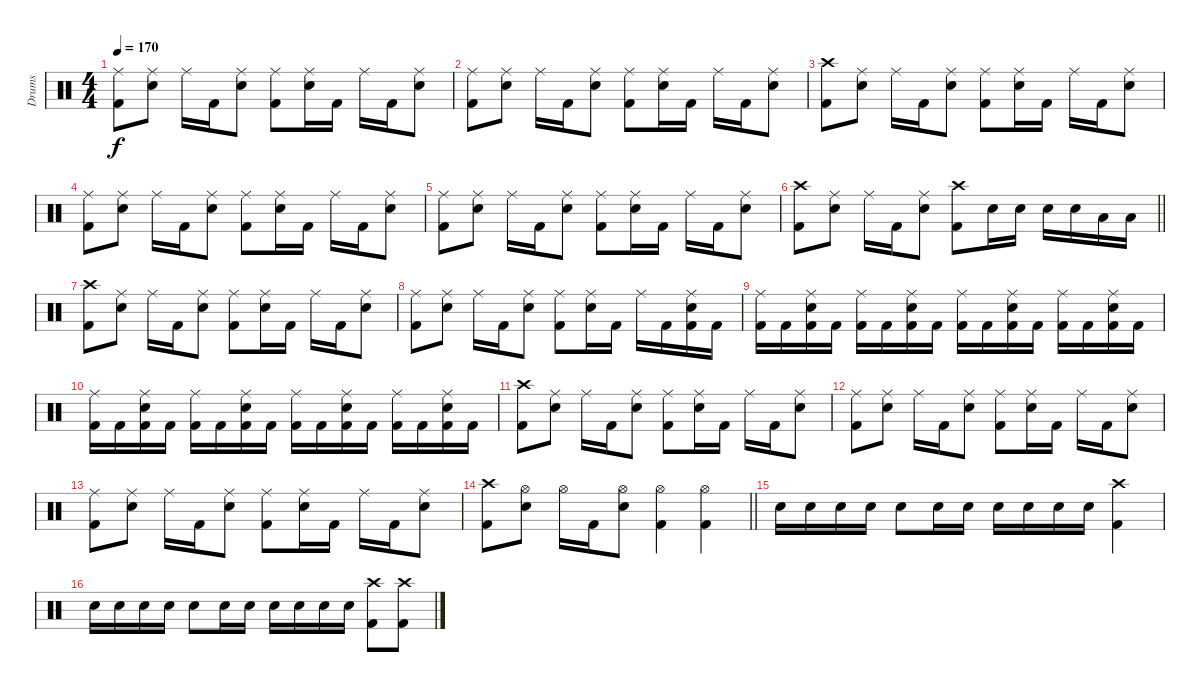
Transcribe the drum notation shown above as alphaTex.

\track ("Drums" "Drums") {instrument percussion}
\staff {score}
\articulation defaults
\ts (4 4)
\tempo 170
\clef neutral
\ks c
("Ride (middle)" "Kick (hit) 2").8{dy f} ("Ride (middle)" "Snare (hit) 2").8 "Ride (middle)".16 "Kick (hit) 2".16 ("Ride (middle)" "Snare (hit) 2").8 ("Ride (middle)" "Kick (hit) 2").8 ("Ride (middle)" "Snare (hit) 2").16 "Kick (hit) 2".16 "Ride (middle)".16 "Kick (hit) 2".16 ("Ride (middle)" "Snare (hit) 2").8 |
("Ride (middle)" "Kick (hit) 2").8 ("Ride (middle)" "Snare (hit) 2").8 "Ride (middle)".16 "Kick (hit) 2".16 ("Ride (middle)" "Snare (hit) 2").8 ("Ride (middle)" "Kick (hit) 2").8 ("Ride (middle)" "Snare (hit) 2").16 "Kick (hit) 2".16 "Ride (middle)".16 "Kick (hit) 2".16 ("Ride (middle)" "Snare (hit) 2").8 |
("Crash high (hit)" "Kick (hit) 2").8 ("Ride (middle)" "Snare (hit) 2").8 "Ride (middle)".16 "Kick (hit) 2".16 ("Ride (middle)" "Snare (hit) 2").8 ("Ride (middle)" "Kick (hit) 2").8 ("Ride (middle)" "Snare (hit) 2").16 "Kick (hit) 2".16 "Ride (middle)".16 "Kick (hit) 2".16 ("Ride (middle)" "Snare (hit) 2").8 |
("Ride (middle)" "Kick (hit) 2").8 ("Ride (middle)" "Snare (hit) 2").8 "Ride (middle)".16 "Kick (hit) 2".16 ("Ride (middle)" "Snare (hit) 2").8 ("Ride (middle)" "Kick (hit) 2").8 ("Ride (middle)" "Snare (hit) 2").16 "Kick (hit) 2".16 "Ride (middle)".16 "Kick (hit) 2".16 ("Ride (middle)" "Snare (hit) 2").8 |
("Ride (middle)" "Kick (hit) 2").8 ("Ride (middle)" "Snare (hit) 2").8 "Ride (middle)".16 "Kick (hit) 2".16 ("Ride (middle)" "Snare (hit) 2").8 ("Ride (middle)" "Kick (hit) 2").8 ("Ride (middle)" "Snare (hit) 2").16 "Kick (hit) 2".16 "Ride (middle)".16 "Kick (hit) 2".16 ("Ride (middle)" "Snare (hit) 2").8 |
\barLineRight lightlight
("Crash high (hit)" "Kick (hit) 2").8 ("Ride (middle)" "Snare (hit) 2").8 "Ride (middle)".16 "Kick (hit) 2".16 ("Ride (middle)" "Snare (hit) 2").8 ("Crash high (hit)" "Kick (hit) 2").8 "Snare (hit) 2".16 "Snare (hit) 2".16 "Snare (hit) 2".16 "Snare (hit) 2".16 "Low Tom (hit)".16 "Low Floor Tom (hit)".16 |
("Crash high (hit)" "Kick (hit) 2").8 ("Ride (middle)" "Snare (hit) 2").8 "Ride (middle)".16 "Kick (hit) 2".16 ("Ride (middle)" "Snare (hit) 2").8 ("Ride (middle)" "Kick (hit) 2").8 ("Ride (middle)" "Snare (hit) 2").16 "Kick (hit) 2".16 "Ride (middle)".16 "Kick (hit) 2".16 ("Ride (middle)" "Snare (hit) 2").8 |
("Ride (middle)" "Kick (hit) 2").8 ("Ride (middle)" "Snare (hit) 2").8 "Ride (middle)".16 "Kick (hit) 2".16 ("Ride (middle)" "Snare (hit) 2").8 ("Ride (middle)" "Kick (hit) 2").8 ("Ride (middle)" "Snare (hit) 2").16 "Kick (hit) 2".16 "Ride (middle)".16 "Kick (hit) 2".16 ("Ride (middle)" "Snare (hit) 2" "Kick (hit) 2").16 "Kick (hit) 2".16 |
("Ride (middle)" "Kick (hit) 2").16 "Kick (hit) 2".16 ("Ride (middle)" "Snare (hit) 2" "Kick (hit) 2").16 "Kick (hit) 2".16 ("Ride (middle)" "Kick (hit) 2").16 "Kick (hit) 2".16 ("Ride (middle)" "Snare (hit) 2" "Kick (hit) 2").16 "Kick (hit) 2".16 ("Ride (middle)" "Kick (hit) 2").16 "Kick (hit) 2".16 ("Ride (middle)" "Snare (hit) 2" "Kick (hit) 2").16 "Kick (hit) 2".16 ("Ride (middle)" "Kick (hit) 2").16 "Kick (hit) 2".16 ("Ride (middle)" "Snare (hit) 2" "Kick (hit) 2").16 "Kick (hit) 2".16 |
("Ride (middle)" "Kick (hit) 2").16 "Kick (hit) 2".16 ("Ride (middle)" "Snare (hit) 2" "Kick (hit) 2").16 "Kick (hit) 2".16 ("Ride (middle)" "Kick (hit) 2").16 "Kick (hit) 2".16 ("Ride (middle)" "Snare (hit) 2" "Kick (hit) 2").16 "Kick (hit) 2".16 ("Ride (middle)" "Kick (hit) 2").16 "Kick (hit) 2".16 ("Ride (middle)" "Snare (hit) 2" "Kick (hit) 2").16 "Kick (hit) 2".16 ("Ride (middle)" "Kick (hit) 2").16 "Kick (hit) 2".16 ("Ride (middle)" "Snare (hit) 2" "Kick (hit) 2").16 "Kick (hit) 2".16 |
("Crash high (hit)" "Kick (hit) 2").8 ("Ride (middle)" "Snare (hit) 2").8 "Ride (middle)".16 "Kick (hit) 2".16 ("Ride (middle)" "Snare (hit) 2").8 ("Ride (middle)" "Kick (hit) 2").8 ("Ride (middle)" "Snare (hit) 2").16 "Kick (hit) 2".16 "Ride (middle)".16 "Kick (hit) 2".16 ("Ride (middle)" "Snare (hit) 2").8 |
("Ride (middle)" "Kick (hit) 2").8 ("Ride (middle)" "Snare (hit) 2").8 "Ride (middle)".16 "Kick (hit) 2".16 ("Ride (middle)" "Snare (hit) 2").8 ("Ride (middle)" "Kick (hit) 2").8 ("Ride (middle)" "Snare (hit) 2").16 "Kick (hit) 2".16 "Ride (middle)".16 "Kick (hit) 2".16 ("Ride (middle)" "Snare (hit) 2").8 |
("Ride (middle)" "Kick (hit) 2").8 ("Ride (middle)" "Snare (hit) 2").8 "Ride (middle)".16 "Kick (hit) 2".16 ("Ride (middle)" "Snare (hit) 2").8 ("Ride (middle)" "Kick (hit) 2").8 ("Ride (middle)" "Snare (hit) 2").16 "Kick (hit) 2".16 "Ride (middle)".16 "Kick (hit) 2".16 ("Ride (middle)" "Snare (hit) 2").8 |
\barLineRight lightlight
("Crash high (hit)" "Kick (hit) 2").8 ("Hi-Hat (open)" "Snare (hit) 2").8 "Hi-Hat (open)".16 "Kick (hit) 2".16 ("Hi-Hat (open)" "Snare (hit) 2").8 ("Hi-Hat (open)" "Kick (hit) 2").4 ("Hi-Hat (open)" "Kick (hit) 2").4 |
"Snare (hit) 2".16 "Snare (hit) 2".16 "Snare (hit) 2".16 "Snare (hit) 2".16 "Snare (hit) 2".8 "Snare (hit) 2".16 "Snare (hit) 2".16 "Snare (hit) 2".16 "Snare (hit) 2".16 "Snare (hit) 2".16 "Snare (hit) 2".16 ("Crash high (hit)" "Kick (hit) 2").4 |
"Snare (hit) 2".16 "Snare (hit) 2".16 "Snare (hit) 2".16 "Snare (hit) 2".16 "Snare (hit) 2".8 "Snare (hit) 2".16 "Snare (hit) 2".16 "Snare (hit) 2".16 "Snare (hit) 2".16 "Snare (hit) 2".16 "Snare (hit) 2".16 ("Crash high (hit)" "Kick (hit) 2").8 ("Crash high (hit)" "Kick (hit) 2").8
